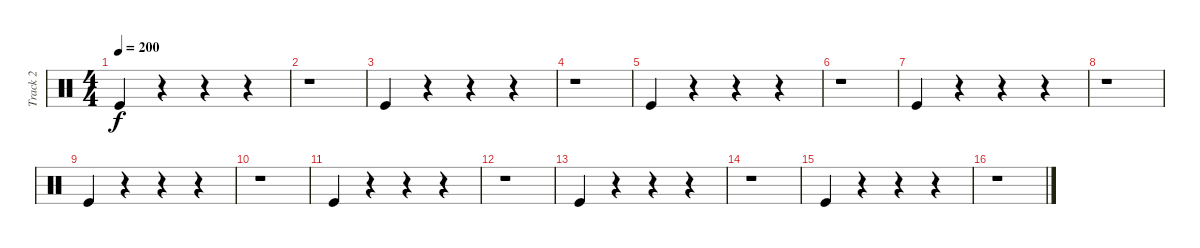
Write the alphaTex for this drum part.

\track ("Track 2" "Track 2") {instrument percussion}
\staff {score}
\articulation defaults
\ts (4 4)
\tempo 200
\clef neutral
\ks c "Kick (hit)".4{dy f}
r.4 r.4 r.4 |
r.1 |
"Kick (hit)".4 r.4 r.4 r.4 |
r.1 |
"Kick (hit)".4 r.4 r.4 r.4 |
r.1 |
"Kick (hit)".4 r.4 r.4 r.4 |
r.1 |
"Kick (hit)".4 r.4 r.4 r.4 |
r.1 |
"Kick (hit)".4 r.4 r.4 r.4 |
r.1 |
"Kick (hit)".4 r.4 r.4 r.4 |
r.1 |
"Kick (hit)".4 r.4 r.4 r.4 |
r.1
